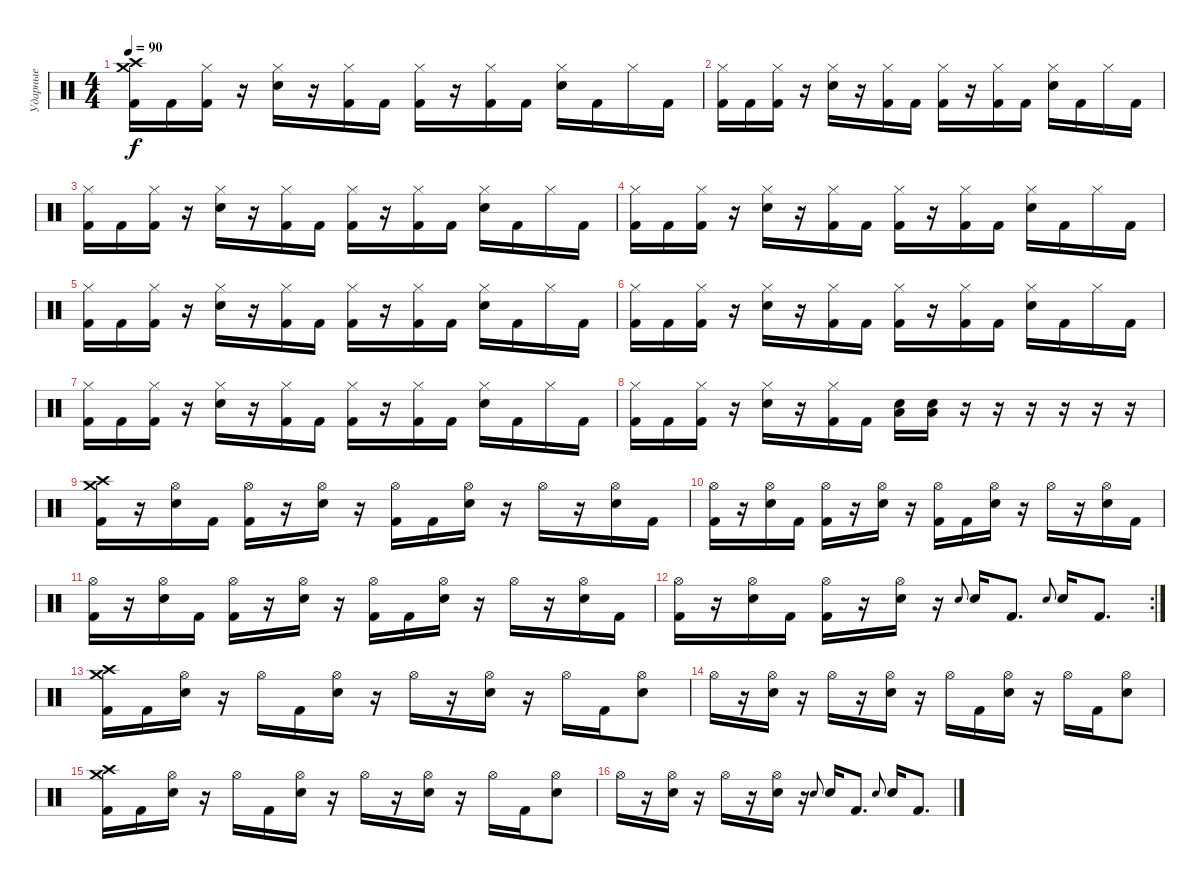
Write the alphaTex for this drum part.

\track ("Ударные" "Ударные") {instrument percussion}
\staff {score}
\articulation defaults
\ts (4 4)
\tempo 90
\clef neutral
\ks c
("Crash medium (hit)" "Crash high (hit)" "Kick (hit) 2").16{dy f} "Kick (hit) 2".16 ("Hi-Hat (closed)" "Kick (hit) 2").16 r.16 ("Hi-Hat (closed)" "Electric Snare (hit)").16 r.16 ("Hi-Hat (closed)" "Kick (hit) 2").16 "Kick (hit) 2".16 ("Hi-Hat (closed)" "Kick (hit) 2").16 r.16 ("Hi-Hat (closed)" "Kick (hit) 2").16 "Kick (hit) 2".16 ("Hi-Hat (closed)" "Electric Snare (hit)").16 "Kick (hit) 2".16 "Hi-Hat (closed)".16 "Kick (hit) 2".16 |
("Hi-Hat (closed)" "Kick (hit) 2").16 "Kick (hit) 2".16 ("Hi-Hat (closed)" "Kick (hit) 2").16 r.16 ("Hi-Hat (closed)" "Electric Snare (hit)").16 r.16 ("Hi-Hat (closed)" "Kick (hit) 2").16 "Kick (hit) 2".16 ("Hi-Hat (closed)" "Kick (hit) 2").16 r.16 ("Hi-Hat (closed)" "Kick (hit) 2").16 "Kick (hit) 2".16 ("Hi-Hat (closed)" "Electric Snare (hit)").16 "Kick (hit) 2".16 "Hi-Hat (closed)".16 "Kick (hit) 2".16 |
("Hi-Hat (closed)" "Kick (hit) 2").16 "Kick (hit) 2".16 ("Hi-Hat (closed)" "Kick (hit) 2").16 r.16 ("Hi-Hat (closed)" "Electric Snare (hit)").16 r.16 ("Hi-Hat (closed)" "Kick (hit) 2").16 "Kick (hit) 2".16 ("Hi-Hat (closed)" "Kick (hit) 2").16 r.16 ("Hi-Hat (closed)" "Kick (hit) 2").16 "Kick (hit) 2".16 ("Hi-Hat (closed)" "Electric Snare (hit)").16 "Kick (hit) 2".16 "Hi-Hat (closed)".16 "Kick (hit) 2".16 |
("Hi-Hat (closed)" "Kick (hit) 2").16 "Kick (hit) 2".16 ("Hi-Hat (closed)" "Kick (hit) 2").16 r.16 ("Hi-Hat (closed)" "Electric Snare (hit)").16 r.16 ("Hi-Hat (closed)" "Kick (hit) 2").16 "Kick (hit) 2".16 ("Hi-Hat (closed)" "Kick (hit) 2").16 r.16 ("Hi-Hat (closed)" "Kick (hit) 2").16 "Kick (hit) 2".16 ("Hi-Hat (closed)" "Electric Snare (hit)").16 "Kick (hit) 2".16 "Hi-Hat (closed)".16 "Kick (hit) 2".16 |
("Hi-Hat (closed)" "Kick (hit) 2").16 "Kick (hit) 2".16 ("Hi-Hat (closed)" "Kick (hit) 2").16 r.16 ("Hi-Hat (closed)" "Electric Snare (hit)").16 r.16 ("Hi-Hat (closed)" "Kick (hit) 2").16 "Kick (hit) 2".16 ("Hi-Hat (closed)" "Kick (hit) 2").16 r.16 ("Hi-Hat (closed)" "Kick (hit) 2").16 "Kick (hit) 2".16 ("Hi-Hat (closed)" "Electric Snare (hit)").16 "Kick (hit) 2".16 "Hi-Hat (closed)".16 "Kick (hit) 2".16 |
("Hi-Hat (closed)" "Kick (hit) 2").16 "Kick (hit) 2".16 ("Hi-Hat (closed)" "Kick (hit) 2").16 r.16 ("Hi-Hat (closed)" "Electric Snare (hit)").16 r.16 ("Hi-Hat (closed)" "Kick (hit) 2").16 "Kick (hit) 2".16 ("Hi-Hat (closed)" "Kick (hit) 2").16 r.16 ("Hi-Hat (closed)" "Kick (hit) 2").16 "Kick (hit) 2".16 ("Hi-Hat (closed)" "Electric Snare (hit)").16 "Kick (hit) 2".16 "Hi-Hat (closed)".16 "Kick (hit) 2".16 |
("Hi-Hat (closed)" "Kick (hit) 2").16 "Kick (hit) 2".16 ("Hi-Hat (closed)" "Kick (hit) 2").16 r.16 ("Hi-Hat (closed)" "Electric Snare (hit)").16 r.16 ("Hi-Hat (closed)" "Kick (hit) 2").16 "Kick (hit) 2".16 ("Hi-Hat (closed)" "Kick (hit) 2").16 r.16 ("Hi-Hat (closed)" "Kick (hit) 2").16 "Kick (hit) 2".16 ("Hi-Hat (closed)" "Electric Snare (hit)").16 "Kick (hit) 2".16 "Hi-Hat (closed)".16 "Kick (hit) 2".16 |
("Hi-Hat (closed)" "Kick (hit) 2").16 "Kick (hit) 2".16 ("Hi-Hat (closed)" "Kick (hit) 2").16 r.16 ("Hi-Hat (closed)" "Electric Snare (hit)").16 r.16 ("Hi-Hat (closed)" "Kick (hit) 2").16 "Kick (hit) 2".16 ("Low Floor Tom (hit)" "Electric Snare (hit)").16 ("Low Floor Tom (hit)" "Electric Snare (hit)").16 r.16 r.16 r.16 r.16 r.16 r.16 |
("Crash medium (hit)" "Crash high (hit)" "Kick (hit) 2").16 r.16 ("Hi-Hat (open)" "Electric Snare (hit)").16 "Kick (hit) 2".16 ("Hi-Hat (open)" "Kick (hit) 2").16 r.16 ("Hi-Hat (open)" "Electric Snare (hit)").16 r.16 ("Hi-Hat (open)" "Kick (hit) 2").16 "Kick (hit) 2".16 ("Hi-Hat (open)" "Electric Snare (hit)").16 r.16 "Hi-Hat (open)".16 r.16 ("Hi-Hat (open)" "Electric Snare (hit)").16 "Kick (hit) 2".16 |
("Hi-Hat (open)" "Kick (hit) 2").16 r.16 ("Hi-Hat (open)" "Electric Snare (hit)").16 "Kick (hit) 2".16 ("Hi-Hat (open)" "Kick (hit) 2").16 r.16 ("Hi-Hat (open)" "Electric Snare (hit)").16 r.16 ("Hi-Hat (open)" "Kick (hit) 2").16 "Kick (hit) 2".16 ("Hi-Hat (open)" "Electric Snare (hit)").16 r.16 "Hi-Hat (open)".16 r.16 ("Hi-Hat (open)" "Electric Snare (hit)").16 "Kick (hit) 2".16 |
("Hi-Hat (open)" "Kick (hit) 2").16 r.16 ("Hi-Hat (open)" "Electric Snare (hit)").16 "Kick (hit) 2".16 ("Hi-Hat (open)" "Kick (hit) 2").16 r.16 ("Hi-Hat (open)" "Electric Snare (hit)").16 r.16 ("Hi-Hat (open)" "Kick (hit) 2").16 "Kick (hit) 2".16 ("Hi-Hat (open)" "Electric Snare (hit)").16 r.16 "Hi-Hat (open)".16 r.16 ("Hi-Hat (open)" "Electric Snare (hit)").16 "Kick (hit) 2".16 |
\rc 2
("Hi-Hat (open)" "Kick (hit) 2").16 r.16 ("Hi-Hat (open)" "Electric Snare (hit)").16 "Kick (hit) 2".16 ("Hi-Hat (open)" "Kick (hit) 2").16 r.16 ("Hi-Hat (open)" "Electric Snare (hit)").16 r.16 "Electric Snare (hit)".8{gr onbeat} "Electric Snare (hit)".16 "Kick (hit) 2".8{d} "Electric Snare (hit)".8{gr onbeat} "Electric Snare (hit)".16 "Kick (hit) 2".8{d} |
("Crash medium (hit)" "Crash high (hit)" "Kick (hit) 2").16 "Kick (hit) 2".16 ("Hi-Hat (open)" "Electric Snare (hit)").16 r.16 "Hi-Hat (open)".16 "Kick (hit) 2".16 ("Hi-Hat (open)" "Electric Snare (hit)").16 r.16 "Hi-Hat (open)".16 r.16 ("Hi-Hat (open)" "Electric Snare (hit)").16 r.16 "Hi-Hat (open)".16 "Kick (hit) 2".16 ("Hi-Hat (open)" "Electric Snare (hit)").8 |
"Hi-Hat (open)".16 r.16 ("Hi-Hat (open)" "Electric Snare (hit)").16 r.16 "Hi-Hat (open)".16 r.16 ("Hi-Hat (open)" "Electric Snare (hit)").16 r.16 "Hi-Hat (open)".16 "Kick (hit) 2".16 ("Hi-Hat (open)" "Electric Snare (hit)").16 r.16 "Hi-Hat (open)".16 "Kick (hit) 2".16 ("Hi-Hat (open)" "Electric Snare (hit)").8 |
("Crash medium (hit)" "Crash high (hit)" "Kick (hit) 2").16 "Kick (hit) 2".16 ("Hi-Hat (open)" "Electric Snare (hit)").16 r.16 "Hi-Hat (open)".16 "Kick (hit) 2".16 ("Hi-Hat (open)" "Electric Snare (hit)").16 r.16 "Hi-Hat (open)".16 r.16 ("Hi-Hat (open)" "Electric Snare (hit)").16 r.16 "Hi-Hat (open)".16 "Kick (hit) 2".16 ("Hi-Hat (open)" "Electric Snare (hit)").8 |
"Hi-Hat (open)".16 r.16 ("Hi-Hat (open)" "Electric Snare (hit)").16 r.16 "Hi-Hat (open)".16 r.16 ("Hi-Hat (open)" "Electric Snare (hit)").16 r.16 "Electric Snare (hit)".8{gr onbeat} "Electric Snare (hit)".16 "Kick (hit) 2".8{d} "Electric Snare (hit)".8{gr onbeat} "Electric Snare (hit)".16 "Kick (hit) 2".8{d}
